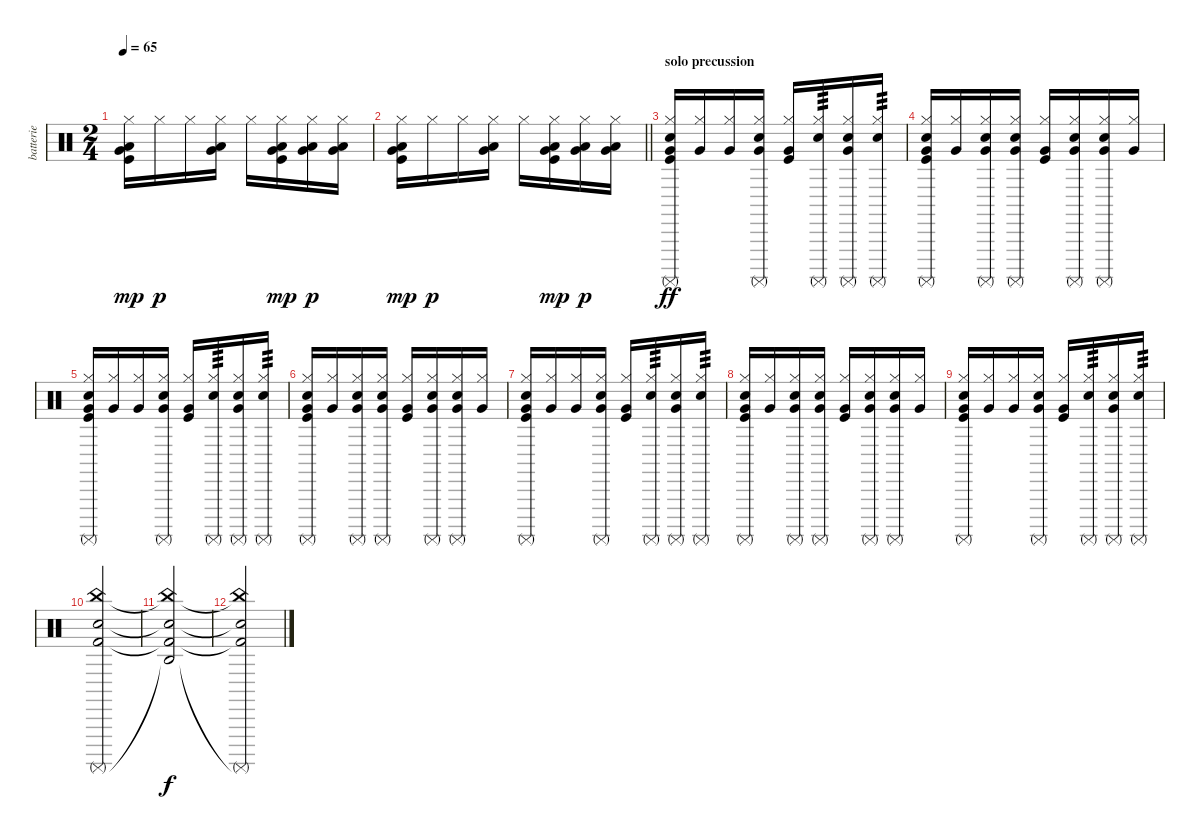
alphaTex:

\track ("batterie" "batterie") {instrument percussion}
\staff {score}
\articulation defaults
\ts (2 4)
\tempo 65
\clef neutral
\ks c
("Hi-Hat (closed)" "Low Tom (hit)" "Very Low Tom (hit)" "Kick (hit)").16{dy mp volume 14} "Hi-Hat (closed)".16{dy p} "Hi-Hat (closed)".16 ("Hi-Hat (closed)" "Low Tom (hit)" "Very Low Tom (hit)").16 "Hi-Hat (closed)".16 ("Hi-Hat (closed)" "Low Tom (hit)" "Very Low Tom (hit)" "Kick (hit)").16{dy mp} ("Hi-Hat (closed)" "Low Tom (hit)" "Very Low Tom (hit)").16{dy p} ("Hi-Hat (closed)" "Low Tom (hit)" "Very Low Tom (hit)").16 |
\barLineRight lightlight
("Hi-Hat (closed)" "Low Tom (hit)" "Very Low Tom (hit)" "Kick (hit)").16{dy mp} "Hi-Hat (closed)".16{dy p} "Hi-Hat (closed)".16 ("Hi-Hat (closed)" "Low Tom (hit)" "Very Low Tom (hit)").16 "Hi-Hat (closed)".16 ("Hi-Hat (closed)" "Low Tom (hit)" "Very Low Tom (hit)" "Kick (hit)").16{dy mp} ("Hi-Hat (closed)" "Low Tom (hit)" "Very Low Tom (hit)").16{dy p} ("Hi-Hat (closed)" "Low Tom (hit)" "Very Low Tom (hit)").16 |
\section ("" "solo precussion")
("Hi-Hat (closed)" "Electric Snare (hit)" "Very Low Tom (hit)" "Kick (hit)" "Surdo (mute)").16{dy ff} ("Hi-Hat (closed)" "Very Low Tom (hit)").16 ("Hi-Hat (closed)" "Very Low Tom (hit)").16 ("Hi-Hat (closed)" "Electric Snare (hit)" "Very Low Tom (hit)" "Surdo (mute)").16 ("Hi-Hat (closed)" "Very Low Tom (hit)" "Kick (hit)").16 ("Hi-Hat (closed)" "Electric Snare (hit)" "Surdo (mute)").16{tp 3} ("Hi-Hat (closed)" "Electric Snare (hit)" "Very Low Tom (hit)" "Surdo (mute)").16 ("Hi-Hat (closed)" "Electric Snare (hit)" "Surdo (mute)").16{tp 3} |
("Hi-Hat (closed)" "Electric Snare (hit)" "Very Low Tom (hit)" "Kick (hit)" "Surdo (mute)").16 ("Hi-Hat (closed)" "Very Low Tom (hit)").16 ("Hi-Hat (closed)" "Electric Snare (hit)" "Very Low Tom (hit)" "Surdo (mute)").16 ("Hi-Hat (closed)" "Electric Snare (hit)" "Very Low Tom (hit)" "Surdo (mute)").16 ("Hi-Hat (closed)" "Very Low Tom (hit)" "Kick (hit)").16 ("Hi-Hat (closed)" "Electric Snare (hit)" "Very Low Tom (hit)" "Surdo (mute)").16 ("Hi-Hat (closed)" "Electric Snare (hit)" "Very Low Tom (hit)" "Surdo (mute)").16 ("Hi-Hat (closed)" "Very Low Tom (hit)").16 |
("Hi-Hat (closed)" "Electric Snare (hit)" "Very Low Tom (hit)" "Kick (hit)" "Surdo (mute)").16 ("Hi-Hat (closed)" "Very Low Tom (hit)").16 ("Hi-Hat (closed)" "Very Low Tom (hit)").16 ("Hi-Hat (closed)" "Electric Snare (hit)" "Very Low Tom (hit)" "Surdo (mute)").16 ("Hi-Hat (closed)" "Very Low Tom (hit)" "Kick (hit)").16 ("Hi-Hat (closed)" "Electric Snare (hit)" "Surdo (mute)").16{tp 3} ("Hi-Hat (closed)" "Electric Snare (hit)" "Very Low Tom (hit)" "Surdo (mute)").16 ("Hi-Hat (closed)" "Electric Snare (hit)" "Surdo (mute)").16{tp 3} |
("Hi-Hat (closed)" "Electric Snare (hit)" "Very Low Tom (hit)" "Kick (hit)" "Surdo (mute)").16 ("Hi-Hat (closed)" "Very Low Tom (hit)").16 ("Hi-Hat (closed)" "Electric Snare (hit)" "Very Low Tom (hit)" "Surdo (mute)").16 ("Hi-Hat (closed)" "Electric Snare (hit)" "Very Low Tom (hit)" "Surdo (mute)").16 ("Hi-Hat (closed)" "Very Low Tom (hit)" "Kick (hit)").16 ("Hi-Hat (closed)" "Electric Snare (hit)" "Very Low Tom (hit)" "Surdo (mute)").16 ("Hi-Hat (closed)" "Electric Snare (hit)" "Very Low Tom (hit)" "Surdo (mute)").16 ("Hi-Hat (closed)" "Very Low Tom (hit)").16 |
("Hi-Hat (closed)" "Electric Snare (hit)" "Very Low Tom (hit)" "Kick (hit)" "Surdo (mute)").16 ("Hi-Hat (closed)" "Very Low Tom (hit)").16 ("Hi-Hat (closed)" "Very Low Tom (hit)").16 ("Hi-Hat (closed)" "Electric Snare (hit)" "Very Low Tom (hit)" "Surdo (mute)").16 ("Hi-Hat (closed)" "Very Low Tom (hit)" "Kick (hit)").16 ("Hi-Hat (closed)" "Electric Snare (hit)" "Surdo (mute)").16{tp 3} ("Hi-Hat (closed)" "Electric Snare (hit)" "Very Low Tom (hit)" "Surdo (mute)").16 ("Hi-Hat (closed)" "Electric Snare (hit)" "Surdo (mute)").16{tp 3} |
("Hi-Hat (closed)" "Electric Snare (hit)" "Very Low Tom (hit)" "Kick (hit)" "Surdo (mute)").16 ("Hi-Hat (closed)" "Very Low Tom (hit)").16 ("Hi-Hat (closed)" "Electric Snare (hit)" "Very Low Tom (hit)" "Surdo (mute)").16 ("Hi-Hat (closed)" "Electric Snare (hit)" "Very Low Tom (hit)" "Surdo (mute)").16 ("Hi-Hat (closed)" "Very Low Tom (hit)" "Kick (hit)").16 ("Hi-Hat (closed)" "Electric Snare (hit)" "Very Low Tom (hit)" "Surdo (mute)").16 ("Hi-Hat (closed)" "Electric Snare (hit)" "Very Low Tom (hit)" "Surdo (mute)").16 ("Hi-Hat (closed)" "Very Low Tom (hit)").16 |
("Hi-Hat (closed)" "Electric Snare (hit)" "Very Low Tom (hit)" "Kick (hit)" "Surdo (mute)").16 ("Hi-Hat (closed)" "Very Low Tom (hit)").16 ("Hi-Hat (closed)" "Very Low Tom (hit)").16 ("Hi-Hat (closed)" "Electric Snare (hit)" "Very Low Tom (hit)" "Surdo (mute)").16 ("Hi-Hat (closed)" "Very Low Tom (hit)" "Kick (hit)").16 ("Hi-Hat (closed)" "Electric Snare (hit)" "Surdo (mute)").16{tp 3} ("Hi-Hat (closed)" "Electric Snare (hit)" "Very Low Tom (hit)" "Surdo (mute)").16 ("Hi-Hat (closed)" "Electric Snare (hit)" "Surdo (mute)").16{tp 3} |
("Electric Snare (hit)" "China (hit)" "Kick (hit) 2" "Surdo (mute)").2 |
("Electric Snare (hit)"{t} "China (hit)"{t} "Kick (hit) 2"{t} "Agogo high (hit)"{t}).2{dy f} |
("Electric Snare (hit)"{t} "China (hit)"{t} "Kick (hit) 2"{t} "Surdo (mute)"{t}).2
